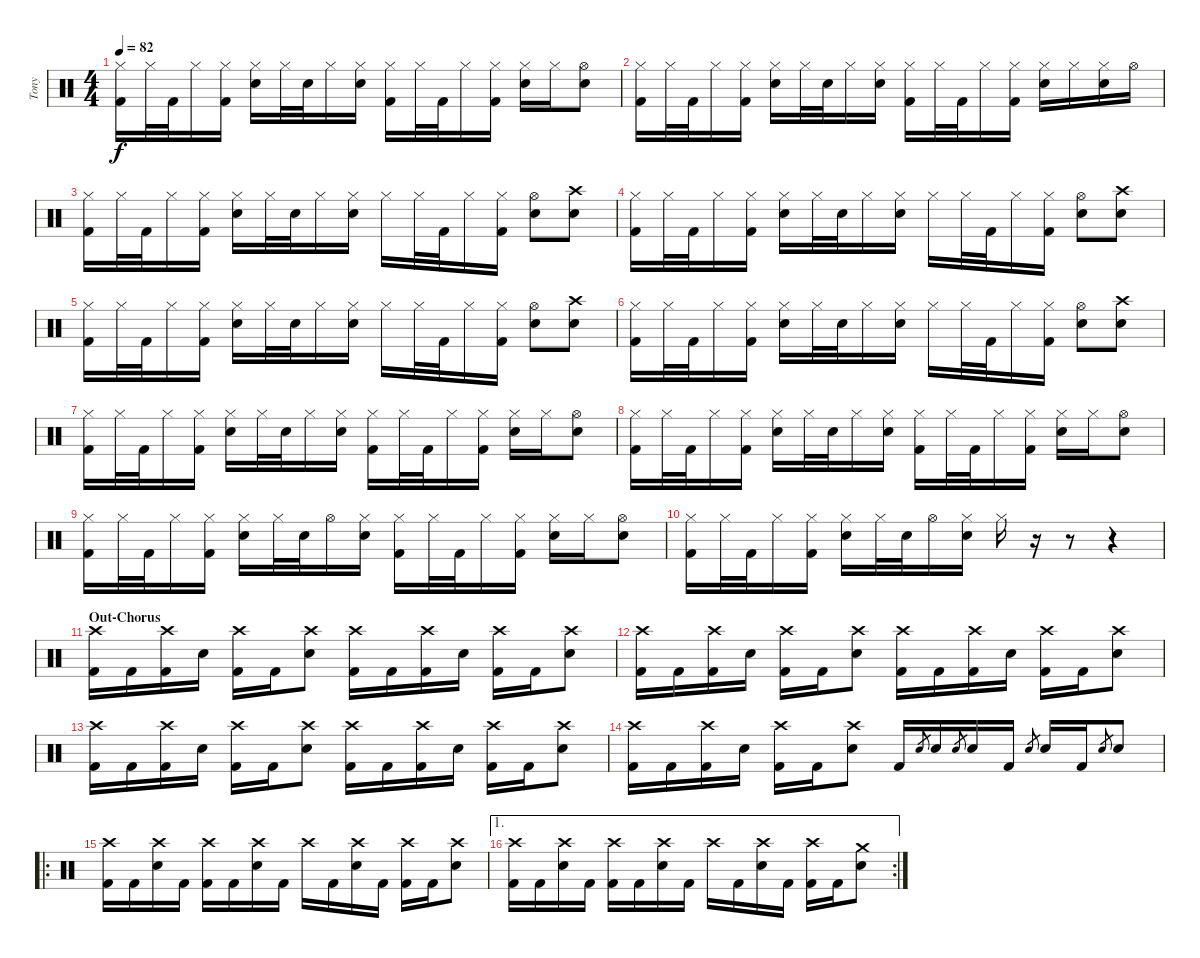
\track ("Tony" "Tony") {instrument percussion}
\staff {score}
\articulation defaults
\ts (4 4)
\tempo 82
\clef neutral
\ks c
("Kick (hit) 2" "Hi-Hat (closed)").16{dy f} "Hi-Hat (closed)".32 "Kick (hit) 2".32 "Hi-Hat (closed)".16 ("Kick (hit) 2" "Hi-Hat (closed)").16 ("Snare (hit) 2" "Hi-Hat (closed)").16 "Hi-Hat (closed)".32 "Snare (hit) 2".32 "Hi-Hat (closed)".16 ("Snare (hit) 2" "Hi-Hat (closed)").16 ("Kick (hit) 2" "Hi-Hat (closed)").16 "Hi-Hat (closed)".32 "Kick (hit) 2".32 "Hi-Hat (closed)".16 ("Kick (hit) 2" "Hi-Hat (closed)").16 ("Snare (hit) 2" "Hi-Hat (closed)").16 "Hi-Hat (closed)".16 ("Snare (hit) 2" "Hi-Hat (open)").8 |
("Kick (hit) 2" "Hi-Hat (closed)").16 "Hi-Hat (closed)".32 "Kick (hit) 2".32 "Hi-Hat (closed)".16 ("Kick (hit) 2" "Hi-Hat (closed)").16 ("Snare (hit) 2" "Hi-Hat (closed)").16 "Hi-Hat (closed)".32 "Snare (hit) 2".32 "Hi-Hat (closed)".16 ("Snare (hit) 2" "Hi-Hat (closed)").16 ("Kick (hit) 2" "Hi-Hat (closed)").16 "Hi-Hat (closed)".32 "Kick (hit) 2".32 "Hi-Hat (closed)".16 ("Kick (hit) 2" "Hi-Hat (closed)").16 ("Snare (hit) 2" "Hi-Hat (closed)").16 "Hi-Hat (closed)".16 ("Snare (hit) 2" "Hi-Hat (closed)").16 "Hi-Hat (open)".16 |
("Kick (hit) 2" "Hi-Hat (closed)").16 "Hi-Hat (closed)".32 "Kick (hit) 2".32 "Hi-Hat (closed)".16 ("Kick (hit) 2" "Hi-Hat (closed)").16 ("Snare (hit) 2" "Hi-Hat (closed)").16 "Hi-Hat (closed)".32 "Snare (hit) 2".32 "Hi-Hat (closed)".16 ("Snare (hit) 2" "Hi-Hat (closed)").16 "Hi-Hat (closed)".16 "Hi-Hat (closed)".32 "Kick (hit) 2".32 "Hi-Hat (closed)".16 ("Kick (hit) 2" "Hi-Hat (closed)").16 ("Snare (hit) 2" "Hi-Hat (open)").8 ("Crash high (hit)" "Snare (hit) 2").8 |
("Kick (hit) 2" "Hi-Hat (closed)").16 "Hi-Hat (closed)".32 "Kick (hit) 2".32 "Hi-Hat (closed)".16 ("Kick (hit) 2" "Hi-Hat (closed)").16 ("Snare (hit) 2" "Hi-Hat (closed)").16 "Hi-Hat (closed)".32 "Snare (hit) 2".32 "Hi-Hat (closed)".16 ("Snare (hit) 2" "Hi-Hat (closed)").16 "Hi-Hat (closed)".16 "Hi-Hat (closed)".32 "Kick (hit) 2".32 "Hi-Hat (closed)".16 ("Kick (hit) 2" "Hi-Hat (closed)").16 ("Snare (hit) 2" "Hi-Hat (open)").8 ("Crash high (hit)" "Snare (hit) 2").8 |
("Kick (hit) 2" "Hi-Hat (closed)").16 "Hi-Hat (closed)".32 "Kick (hit) 2".32 "Hi-Hat (closed)".16 ("Kick (hit) 2" "Hi-Hat (closed)").16 ("Snare (hit) 2" "Hi-Hat (closed)").16 "Hi-Hat (closed)".32 "Snare (hit) 2".32 "Hi-Hat (closed)".16 ("Snare (hit) 2" "Hi-Hat (closed)").16 "Hi-Hat (closed)".16 "Hi-Hat (closed)".32 "Kick (hit) 2".32 "Hi-Hat (closed)".16 ("Kick (hit) 2" "Hi-Hat (closed)").16 ("Snare (hit) 2" "Hi-Hat (open)").8 ("Crash high (hit)" "Snare (hit) 2").8 |
("Kick (hit) 2" "Hi-Hat (closed)").16 "Hi-Hat (closed)".32 "Kick (hit) 2".32 "Hi-Hat (closed)".16 ("Kick (hit) 2" "Hi-Hat (closed)").16 ("Snare (hit) 2" "Hi-Hat (closed)").16 "Hi-Hat (closed)".32 "Snare (hit) 2".32 "Hi-Hat (closed)".16 ("Snare (hit) 2" "Hi-Hat (closed)").16 "Hi-Hat (closed)".16 "Hi-Hat (closed)".32 "Kick (hit) 2".32 "Hi-Hat (closed)".16 ("Kick (hit) 2" "Hi-Hat (closed)").16 ("Snare (hit) 2" "Hi-Hat (open)").8 ("Crash high (hit)" "Snare (hit) 2").8 |
("Kick (hit) 2" "Hi-Hat (closed)").16 "Hi-Hat (closed)".32 "Kick (hit) 2".32 "Hi-Hat (closed)".16 ("Kick (hit) 2" "Hi-Hat (closed)").16 ("Snare (hit) 2" "Hi-Hat (closed)").16 "Hi-Hat (closed)".32 "Snare (hit) 2".32 "Hi-Hat (closed)".16 ("Snare (hit) 2" "Hi-Hat (closed)").16 ("Kick (hit) 2" "Hi-Hat (closed)").16 "Hi-Hat (closed)".32 "Kick (hit) 2".32 "Hi-Hat (closed)".16 ("Kick (hit) 2" "Hi-Hat (closed)").16 ("Snare (hit) 2" "Hi-Hat (closed)").16 "Hi-Hat (closed)".16 ("Snare (hit) 2" "Hi-Hat (open)").8 |
("Kick (hit) 2" "Hi-Hat (closed)").16 "Hi-Hat (closed)".32 "Kick (hit) 2".32 "Hi-Hat (closed)".16 ("Kick (hit) 2" "Hi-Hat (closed)").16 ("Snare (hit) 2" "Hi-Hat (closed)").16 "Hi-Hat (closed)".32 "Snare (hit) 2".32 "Hi-Hat (closed)".16 ("Snare (hit) 2" "Hi-Hat (closed)").16 ("Kick (hit) 2" "Hi-Hat (closed)").16 "Hi-Hat (closed)".32 "Kick (hit) 2".32 "Hi-Hat (closed)".16 ("Kick (hit) 2" "Hi-Hat (closed)").16 ("Snare (hit) 2" "Hi-Hat (closed)").16 "Hi-Hat (closed)".16 ("Snare (hit) 2" "Hi-Hat (open)").8 |
("Kick (hit) 2" "Hi-Hat (closed)").16 "Hi-Hat (closed)".32 "Kick (hit) 2".32 "Hi-Hat (closed)".16 ("Kick (hit) 2" "Hi-Hat (closed)").16 ("Snare (hit) 2" "Hi-Hat (closed)").16 "Hi-Hat (closed)".32 "Snare (hit) 2".32 "Hi-Hat (open)".16 ("Snare (hit) 2" "Hi-Hat (closed)").16 ("Kick (hit) 2" "Hi-Hat (closed)").16 "Hi-Hat (closed)".32 "Kick (hit) 2".32 "Hi-Hat (closed)".16 ("Kick (hit) 2" "Hi-Hat (closed)").16 ("Snare (hit) 2" "Hi-Hat (closed)").16 "Hi-Hat (closed)".16 ("Snare (hit) 2" "Hi-Hat (open)").8 |
("Kick (hit) 2" "Hi-Hat (closed)").16 "Hi-Hat (closed)".32 "Kick (hit) 2".32 "Hi-Hat (closed)".16 ("Kick (hit) 2" "Hi-Hat (closed)").16 ("Snare (hit) 2" "Hi-Hat (closed)").16 "Hi-Hat (closed)".32 "Snare (hit) 2".32 "Hi-Hat (open)".16 ("Snare (hit) 2" "Hi-Hat (closed)").16 "Hi-Hat (closed)".16 r.16 r.8 r.4 |
\section ("" "Out-Chorus")
("Kick (hit) 2" "Crash high (hit)").16 "Kick (hit) 2".16 ("Kick (hit) 2" "Crash high (hit)").16 "Snare (hit) 2".16 ("Kick (hit) 2" "Crash high (hit)").16 "Kick (hit) 2".16 ("Crash high (hit)" "Snare (hit) 2").8 ("Kick (hit) 2" "Crash high (hit)").16 "Kick (hit) 2".16 ("Kick (hit) 2" "Crash high (hit)").16 "Snare (hit) 2".16 ("Kick (hit) 2" "Crash high (hit)").16 "Kick (hit) 2".16 ("Crash high (hit)" "Snare (hit) 2").8 |
("Kick (hit) 2" "Crash high (hit)").16 "Kick (hit) 2".16 ("Kick (hit) 2" "Crash high (hit)").16 "Snare (hit) 2".16 ("Kick (hit) 2" "Crash high (hit)").16 "Kick (hit) 2".16 ("Crash high (hit)" "Snare (hit) 2").8 ("Kick (hit) 2" "Crash high (hit)").16 "Kick (hit) 2".16 ("Kick (hit) 2" "Crash high (hit)").16 "Snare (hit) 2".16 ("Kick (hit) 2" "Crash high (hit)").16 "Kick (hit) 2".16 ("Crash high (hit)" "Snare (hit) 2").8 |
("Kick (hit) 2" "Crash high (hit)").16 "Kick (hit) 2".16 ("Kick (hit) 2" "Crash high (hit)").16 "Snare (hit) 2".16 ("Kick (hit) 2" "Crash high (hit)").16 "Kick (hit) 2".16 ("Crash high (hit)" "Snare (hit) 2").8 ("Kick (hit) 2" "Crash high (hit)").16 "Kick (hit) 2".16 ("Kick (hit) 2" "Crash high (hit)").16 "Snare (hit) 2".16 ("Kick (hit) 2" "Crash high (hit)").16 "Kick (hit) 2".16 ("Crash high (hit)" "Snare (hit) 2").8 |
("Kick (hit) 2" "Crash high (hit)").16 "Kick (hit) 2".16 ("Kick (hit) 2" "Crash high (hit)").16 "Snare (hit) 2".16 ("Kick (hit) 2" "Crash high (hit)").16 "Kick (hit) 2".16 ("Crash high (hit)" "Snare (hit) 2").8 "Kick (hit) 2".16 "Snare (hit) 2".8{gr} "Snare (hit) 2".16 "Snare (hit) 2".8{gr} "Snare (hit) 2".16 "Kick (hit) 2".16 "Snare (hit) 2".8{gr} "Snare (hit) 2".16 "Kick (hit) 2".16 "Snare (hit) 2".8{gr} "Snare (hit) 2".8 |
\ro
("Kick (hit) 2" "Crash high (hit)").16 "Kick (hit) 2".16 ("Crash high (hit)" "Snare (hit) 2").16 "Kick (hit) 2".16 ("Kick (hit) 2" "Crash high (hit)").16 "Kick (hit) 2".16 ("Crash high (hit)" "Snare (hit) 2").16 "Kick (hit) 2".16 "Crash high (hit)".16 "Kick (hit) 2".16 ("Crash high (hit)" "Snare (hit) 2").16 "Kick (hit) 2".16 ("Kick (hit) 2" "Crash high (hit)").16 "Kick (hit) 2".16 ("Crash high (hit)" "Snare (hit) 2").8 |
\ae 1
\rc 2
("Kick (hit) 2" "Crash high (hit)").16 "Kick (hit) 2".16 ("Crash high (hit)" "Snare (hit) 2").16 "Kick (hit) 2".16 ("Kick (hit) 2" "Crash high (hit)").16 "Kick (hit) 2".16 ("Crash high (hit)" "Snare (hit) 2").16 "Kick (hit) 2".16 "Crash high (hit)".16 "Kick (hit) 2".16 ("Crash high (hit)" "Snare (hit) 2").16 "Kick (hit) 2".16 ("Kick (hit) 2" "Crash high (hit)").16 "Kick (hit) 2".16 ("Crash medium (hit)" "Snare (hit) 2").8
